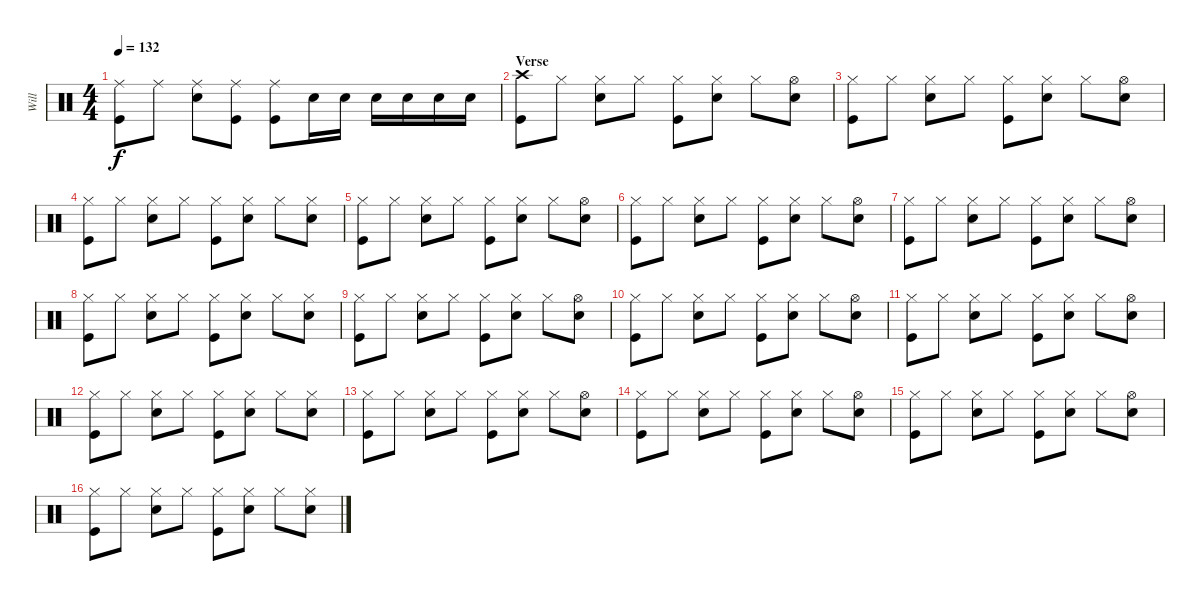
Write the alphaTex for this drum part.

\track ("Will" "Will") {instrument percussion}
\staff {score}
\articulation defaults
\ts (4 4)
\tempo 132
\clef neutral
\ks c
("Ride (middle)" "Kick (hit)").8{dy f} "Ride (middle)".8 ("Ride (middle)" "Snare (hit) 2").8 ("Ride (middle)" "Kick (hit)").8 ("Ride (middle)" "Kick (hit)").8 "Snare (hit) 2".16 "Snare (hit) 2".16 "Snare (hit) 2".16 "Snare (hit) 2".16 "Snare (hit) 2".16 "Snare (hit) 2".16 |
\section ("" "Verse")
("Crash high (hit)" "Kick (hit)").8 "Hi-Hat (closed)".8 ("Hi-Hat (closed)" "Snare (hit) 2").8 "Hi-Hat (closed)".8 ("Hi-Hat (closed)" "Kick (hit)").8 ("Hi-Hat (closed)" "Snare (hit) 2").8 "Hi-Hat (closed)".8 ("Hi-Hat (open)" "Snare (hit) 2").8 |
("Hi-Hat (closed)" "Kick (hit)").8 "Hi-Hat (closed)".8 ("Hi-Hat (closed)" "Snare (hit) 2").8 "Hi-Hat (closed)".8 ("Hi-Hat (closed)" "Kick (hit)").8 ("Hi-Hat (closed)" "Snare (hit) 2").8 "Hi-Hat (closed)".8 ("Hi-Hat (open)" "Snare (hit) 2").8 |
("Hi-Hat (closed)" "Kick (hit)").8 "Hi-Hat (closed)".8 ("Hi-Hat (closed)" "Snare (hit) 2").8 "Hi-Hat (closed)".8 ("Hi-Hat (closed)" "Kick (hit)").8 ("Hi-Hat (closed)" "Snare (hit) 2").8 "Hi-Hat (closed)".8 ("Hi-Hat (closed)" "Snare (hit) 2").8 |
("Hi-Hat (closed)" "Kick (hit)").8 "Hi-Hat (closed)".8 ("Hi-Hat (closed)" "Snare (hit) 2").8 "Hi-Hat (closed)".8 ("Hi-Hat (closed)" "Kick (hit)").8 ("Hi-Hat (closed)" "Snare (hit) 2").8 "Hi-Hat (closed)".8 ("Hi-Hat (open)" "Snare (hit) 2").8 |
("Hi-Hat (closed)" "Kick (hit)").8 "Hi-Hat (closed)".8 ("Hi-Hat (closed)" "Snare (hit) 2").8 "Hi-Hat (closed)".8 ("Hi-Hat (closed)" "Kick (hit)").8 ("Hi-Hat (closed)" "Snare (hit) 2").8 "Hi-Hat (closed)".8 ("Hi-Hat (open)" "Snare (hit) 2").8 |
("Hi-Hat (closed)" "Kick (hit)").8 "Hi-Hat (closed)".8 ("Hi-Hat (closed)" "Snare (hit) 2").8 "Hi-Hat (closed)".8 ("Hi-Hat (closed)" "Kick (hit)").8 ("Hi-Hat (closed)" "Snare (hit) 2").8 "Hi-Hat (closed)".8 ("Hi-Hat (open)" "Snare (hit) 2").8 |
("Hi-Hat (closed)" "Kick (hit)").8 "Hi-Hat (closed)".8 ("Hi-Hat (closed)" "Snare (hit) 2").8 "Hi-Hat (closed)".8 ("Hi-Hat (closed)" "Kick (hit)").8 ("Hi-Hat (closed)" "Snare (hit) 2").8 "Hi-Hat (closed)".8 ("Hi-Hat (closed)" "Snare (hit) 2").8 |
("Hi-Hat (closed)" "Kick (hit)").8 "Hi-Hat (closed)".8 ("Hi-Hat (closed)" "Snare (hit) 2").8 "Hi-Hat (closed)".8 ("Hi-Hat (closed)" "Kick (hit)").8 ("Hi-Hat (closed)" "Snare (hit) 2").8 "Hi-Hat (closed)".8 ("Hi-Hat (open)" "Snare (hit) 2").8 |
("Hi-Hat (closed)" "Kick (hit)").8 "Hi-Hat (closed)".8 ("Hi-Hat (closed)" "Snare (hit) 2").8 "Hi-Hat (closed)".8 ("Hi-Hat (closed)" "Kick (hit)").8 ("Hi-Hat (closed)" "Snare (hit) 2").8 "Hi-Hat (closed)".8 ("Hi-Hat (open)" "Snare (hit) 2").8 |
("Hi-Hat (closed)" "Kick (hit)").8 "Hi-Hat (closed)".8 ("Hi-Hat (closed)" "Snare (hit) 2").8 "Hi-Hat (closed)".8 ("Hi-Hat (closed)" "Kick (hit)").8 ("Hi-Hat (closed)" "Snare (hit) 2").8 "Hi-Hat (closed)".8 ("Hi-Hat (open)" "Snare (hit) 2").8 |
("Hi-Hat (closed)" "Kick (hit)").8 "Hi-Hat (closed)".8 ("Hi-Hat (closed)" "Snare (hit) 2").8 "Hi-Hat (closed)".8 ("Hi-Hat (closed)" "Kick (hit)").8 ("Hi-Hat (closed)" "Snare (hit) 2").8 "Hi-Hat (closed)".8 ("Hi-Hat (closed)" "Snare (hit) 2").8 |
("Hi-Hat (closed)" "Kick (hit)").8 "Hi-Hat (closed)".8 ("Hi-Hat (closed)" "Snare (hit) 2").8 "Hi-Hat (closed)".8 ("Hi-Hat (closed)" "Kick (hit)").8 ("Hi-Hat (closed)" "Snare (hit) 2").8 "Hi-Hat (closed)".8 ("Hi-Hat (open)" "Snare (hit) 2").8 |
("Hi-Hat (closed)" "Kick (hit)").8 "Hi-Hat (closed)".8 ("Hi-Hat (closed)" "Snare (hit) 2").8 "Hi-Hat (closed)".8 ("Hi-Hat (closed)" "Kick (hit)").8 ("Hi-Hat (closed)" "Snare (hit) 2").8 "Hi-Hat (closed)".8 ("Hi-Hat (open)" "Snare (hit) 2").8 |
("Hi-Hat (closed)" "Kick (hit)").8 "Hi-Hat (closed)".8 ("Hi-Hat (closed)" "Snare (hit) 2").8 "Hi-Hat (closed)".8 ("Hi-Hat (closed)" "Kick (hit)").8 ("Hi-Hat (closed)" "Snare (hit) 2").8 "Hi-Hat (closed)".8 ("Hi-Hat (open)" "Snare (hit) 2").8 |
("Hi-Hat (closed)" "Kick (hit)").8 "Hi-Hat (closed)".8 ("Hi-Hat (closed)" "Snare (hit) 2").8 "Hi-Hat (closed)".8 ("Hi-Hat (closed)" "Kick (hit)").8 ("Hi-Hat (closed)" "Snare (hit) 2").8 "Hi-Hat (closed)".8 ("Hi-Hat (closed)" "Snare (hit) 2").8
